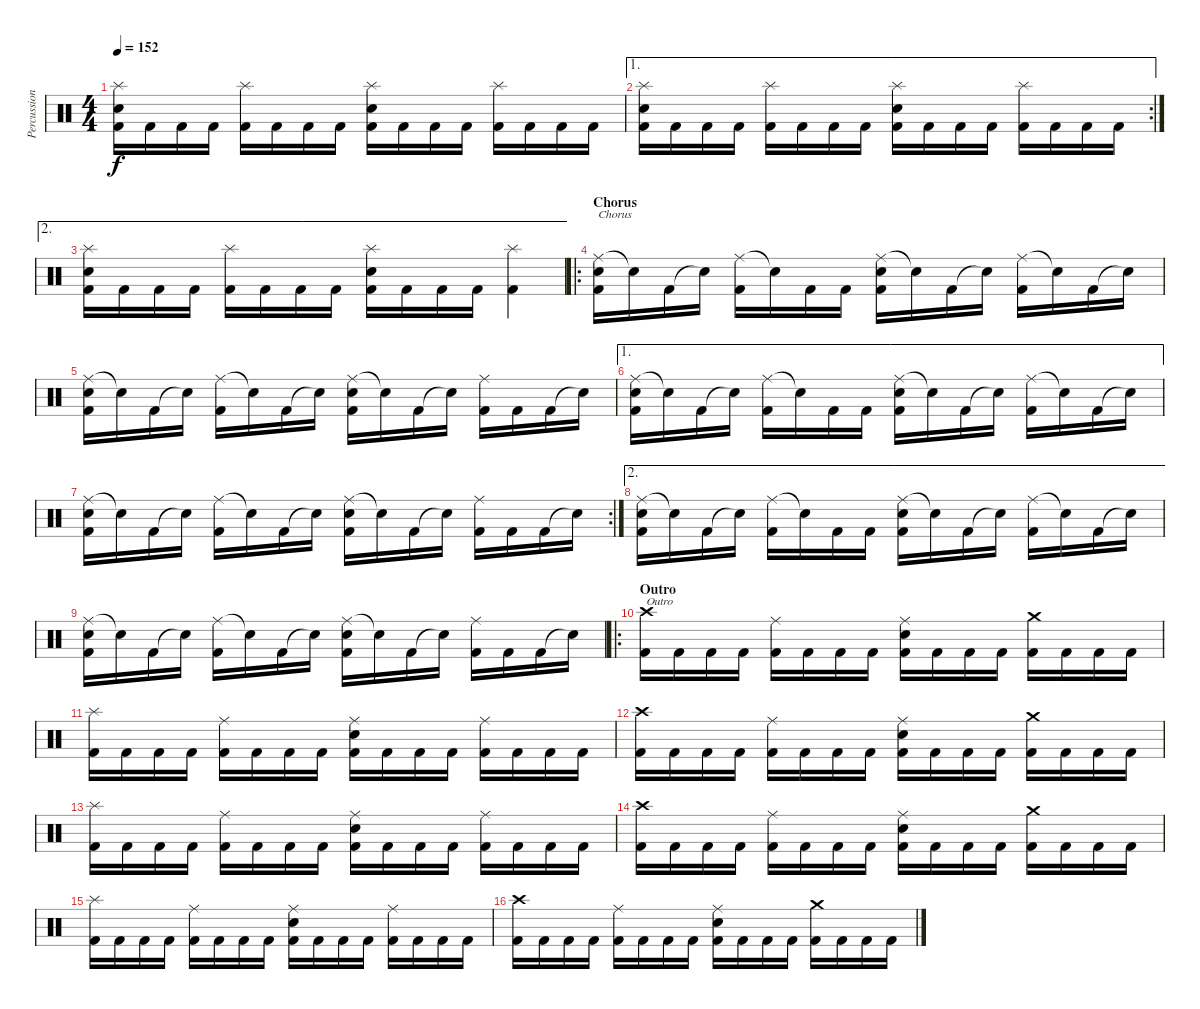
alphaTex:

\track ("Percussion" "Percussion") {instrument percussion}
\staff {score}
\articulation defaults
\ts (4 4)
\tempo 152
\clef neutral
\ks c
("Splash (hit)" "Electric Snare (hit)" "Kick (hit) 2").16{dy f} "Kick (hit) 2".16 "Kick (hit) 2".16 "Kick (hit) 2".16 ("Splash (hit)" "Kick (hit) 2").16 "Kick (hit) 2".16 "Kick (hit) 2".16 "Kick (hit) 2".16 ("Splash (hit)" "Electric Snare (hit)" "Kick (hit) 2").16 "Kick (hit) 2".16 "Kick (hit) 2".16 "Kick (hit) 2".16 ("Splash (hit)" "Kick (hit) 2").16 "Kick (hit) 2".16 "Kick (hit) 2".16 "Kick (hit) 2".16 |
\ae 1
\rc 2
("Splash (hit)" "Electric Snare (hit)" "Kick (hit) 2").16 "Kick (hit) 2".16 "Kick (hit) 2".16 "Kick (hit) 2".16 ("Splash (hit)" "Kick (hit) 2").16 "Kick (hit) 2".16 "Kick (hit) 2".16 "Kick (hit) 2".16 ("Splash (hit)" "Electric Snare (hit)" "Kick (hit) 2").16 "Kick (hit) 2".16 "Kick (hit) 2".16 "Kick (hit) 2".16 ("Splash (hit)" "Kick (hit) 2").16 "Kick (hit) 2".16 "Kick (hit) 2".16 "Kick (hit) 2".16 |
\ae 2
("Splash (hit)" "Electric Snare (hit)" "Kick (hit) 2").16 "Kick (hit) 2".16 "Kick (hit) 2".16 "Kick (hit) 2".16 ("Splash (hit)" "Kick (hit) 2").16 "Kick (hit) 2".16 "Kick (hit) 2".16 "Kick (hit) 2".16 ("Splash (hit)" "Electric Snare (hit)" "Kick (hit) 2").16 "Kick (hit) 2".16 "Kick (hit) 2".16 "Kick (hit) 2".16 ("Splash (hit)" "Kick (hit) 2").4 |
\ro
\section ("" "Chorus")
("Ride (middle)" "Electric Snare (hit)" "Kick (hit) 2").16{txt "Chorus"} "Snare (hit)"{t}.16 "Kick (hit) 2".16 "Snare (hit)"{t}.16 ("Ride (middle)" "Kick (hit) 2").16 "Snare (hit)"{t}.16 "Kick (hit) 2".16 "Kick (hit) 2".16 ("Ride (middle)" "Electric Snare (hit)" "Kick (hit) 2").16 "Snare (hit)"{t}.16 "Kick (hit) 2".16 "Snare (hit)"{t}.16 ("Ride (middle)" "Kick (hit) 2").16 "Snare (hit)"{t}.16 "Kick (hit) 2".16 "Snare (hit)"{t}.16 |
("Ride (middle)" "Electric Snare (hit)" "Kick (hit) 2").16 "Snare (hit)"{t}.16 "Kick (hit) 2".16 "Snare (hit)"{t}.16 ("Ride (middle)" "Kick (hit) 2").16 "Snare (hit)"{t}.16 "Kick (hit) 2".16 "Snare (hit)"{t}.16 ("Ride (middle)" "Electric Snare (hit)" "Kick (hit) 2").16 "Snare (hit)"{t}.16 "Kick (hit) 2".16 "Snare (hit)"{t}.16 ("Ride (middle)" "Kick (hit) 2").16 "Kick (hit) 2".16 "Kick (hit) 2".16 "Snare (hit)"{t}.16 |
\ae 1
("Ride (middle)" "Electric Snare (hit)" "Kick (hit) 2").16 "Snare (hit)"{t}.16 "Kick (hit) 2".16 "Snare (hit)"{t}.16 ("Ride (middle)" "Kick (hit) 2").16 "Snare (hit)"{t}.16 "Kick (hit) 2".16 "Kick (hit) 2".16 ("Ride (middle)" "Electric Snare (hit)" "Kick (hit) 2").16 "Snare (hit)"{t}.16 "Kick (hit) 2".16 "Snare (hit)"{t}.16 ("Ride (middle)" "Kick (hit) 2").16 "Snare (hit)"{t}.16 "Kick (hit) 2".16 "Snare (hit)"{t}.16 |
\rc 2
("Ride (middle)" "Electric Snare (hit)" "Kick (hit) 2").16 "Snare (hit)"{t}.16 "Kick (hit) 2".16 "Snare (hit)"{t}.16 ("Ride (middle)" "Kick (hit) 2").16 "Snare (hit)"{t}.16 "Kick (hit) 2".16 "Snare (hit)"{t}.16 ("Ride (middle)" "Electric Snare (hit)" "Kick (hit) 2").16 "Snare (hit)"{t}.16 "Kick (hit) 2".16 "Snare (hit)"{t}.16 ("Ride (middle)" "Kick (hit) 2").16 "Kick (hit) 2".16 "Kick (hit) 2".16 "Snare (hit)"{t}.16 |
\ae 2
("Ride (middle)" "Electric Snare (hit)" "Kick (hit) 2").16 "Snare (hit)"{t}.16 "Kick (hit) 2".16 "Snare (hit)"{t}.16 ("Ride (middle)" "Kick (hit) 2").16 "Snare (hit)"{t}.16 "Kick (hit) 2".16 "Kick (hit) 2".16 ("Ride (middle)" "Electric Snare (hit)" "Kick (hit) 2").16 "Snare (hit)"{t}.16 "Kick (hit) 2".16 "Snare (hit)"{t}.16 ("Ride (middle)" "Kick (hit) 2").16 "Snare (hit)"{t}.16 "Kick (hit) 2".16 "Snare (hit)"{t}.16 |
("Ride (middle)" "Electric Snare (hit)" "Kick (hit) 2").16 "Snare (hit)"{t}.16 "Kick (hit) 2".16 "Snare (hit)"{t}.16 ("Ride (middle)" "Kick (hit) 2").16 "Snare (hit)"{t}.16 "Kick (hit) 2".16 "Snare (hit)"{t}.16 ("Ride (middle)" "Electric Snare (hit)" "Kick (hit) 2").16 "Snare (hit)"{t}.16 "Kick (hit) 2".16 "Snare (hit)"{t}.16 ("Ride (middle)" "Kick (hit) 2").16 "Kick (hit) 2".16 "Kick (hit) 2".16 "Snare (hit)"{t}.16 |
\ro
\section ("" "Outro")
("Crash high (hit)" "Kick (hit) 2").16{txt "Outro"} "Kick (hit) 2".16 "Kick (hit) 2".16 "Kick (hit) 2".16 ("Ride (middle)" "Kick (hit) 2").16 "Kick (hit) 2".16 "Kick (hit) 2".16 "Kick (hit) 2".16 ("Ride (middle)" "Electric Snare (hit)" "Kick (hit) 2").16 "Kick (hit) 2".16 "Kick (hit) 2".16 "Kick (hit) 2".16 ("Crash medium (hit)" "Kick (hit) 2").16 "Kick (hit) 2".16 "Kick (hit) 2".16 "Kick (hit) 2".16 |
("Splash (hit)" "Kick (hit) 2").16 "Kick (hit) 2".16 "Kick (hit) 2".16 "Kick (hit) 2".16 ("Ride (middle)" "Kick (hit) 2").16 "Kick (hit) 2".16 "Kick (hit) 2".16 "Kick (hit) 2".16 ("Ride (middle)" "Electric Snare (hit)" "Kick (hit) 2").16 "Kick (hit) 2".16 "Kick (hit) 2".16 "Kick (hit) 2".16 ("Ride (middle)" "Kick (hit) 2").16 "Kick (hit) 2".16 "Kick (hit) 2".16 "Kick (hit) 2".16 |
("Crash high (hit)" "Kick (hit) 2").16 "Kick (hit) 2".16 "Kick (hit) 2".16 "Kick (hit) 2".16 ("Ride (middle)" "Kick (hit) 2").16 "Kick (hit) 2".16 "Kick (hit) 2".16 "Kick (hit) 2".16 ("Ride (middle)" "Electric Snare (hit)" "Kick (hit) 2").16 "Kick (hit) 2".16 "Kick (hit) 2".16 "Kick (hit) 2".16 ("Crash medium (hit)" "Kick (hit) 2").16 "Kick (hit) 2".16 "Kick (hit) 2".16 "Kick (hit) 2".16 |
("Splash (hit)" "Kick (hit) 2").16 "Kick (hit) 2".16 "Kick (hit) 2".16 "Kick (hit) 2".16 ("Ride (middle)" "Kick (hit) 2").16 "Kick (hit) 2".16 "Kick (hit) 2".16 "Kick (hit) 2".16 ("Ride (middle)" "Electric Snare (hit)" "Kick (hit) 2").16 "Kick (hit) 2".16 "Kick (hit) 2".16 "Kick (hit) 2".16 ("Ride (middle)" "Kick (hit) 2").16 "Kick (hit) 2".16 "Kick (hit) 2".16 "Kick (hit) 2".16 |
("Crash high (hit)" "Kick (hit) 2").16 "Kick (hit) 2".16 "Kick (hit) 2".16 "Kick (hit) 2".16 ("Ride (middle)" "Kick (hit) 2").16 "Kick (hit) 2".16 "Kick (hit) 2".16 "Kick (hit) 2".16 ("Ride (middle)" "Electric Snare (hit)" "Kick (hit) 2").16 "Kick (hit) 2".16 "Kick (hit) 2".16 "Kick (hit) 2".16 ("Crash medium (hit)" "Kick (hit) 2").16 "Kick (hit) 2".16 "Kick (hit) 2".16 "Kick (hit) 2".16 |
("Splash (hit)" "Kick (hit) 2").16 "Kick (hit) 2".16 "Kick (hit) 2".16 "Kick (hit) 2".16 ("Ride (middle)" "Kick (hit) 2").16 "Kick (hit) 2".16 "Kick (hit) 2".16 "Kick (hit) 2".16 ("Ride (middle)" "Electric Snare (hit)" "Kick (hit) 2").16 "Kick (hit) 2".16 "Kick (hit) 2".16 "Kick (hit) 2".16 ("Ride (middle)" "Kick (hit) 2").16 "Kick (hit) 2".16 "Kick (hit) 2".16 "Kick (hit) 2".16 |
("Crash high (hit)" "Kick (hit) 2").16 "Kick (hit) 2".16 "Kick (hit) 2".16 "Kick (hit) 2".16 ("Ride (middle)" "Kick (hit) 2").16 "Kick (hit) 2".16 "Kick (hit) 2".16 "Kick (hit) 2".16 ("Ride (middle)" "Electric Snare (hit)" "Kick (hit) 2").16 "Kick (hit) 2".16 "Kick (hit) 2".16 "Kick (hit) 2".16 ("Crash medium (hit)" "Kick (hit) 2").16 "Kick (hit) 2".16 "Kick (hit) 2".16 "Kick (hit) 2".16
